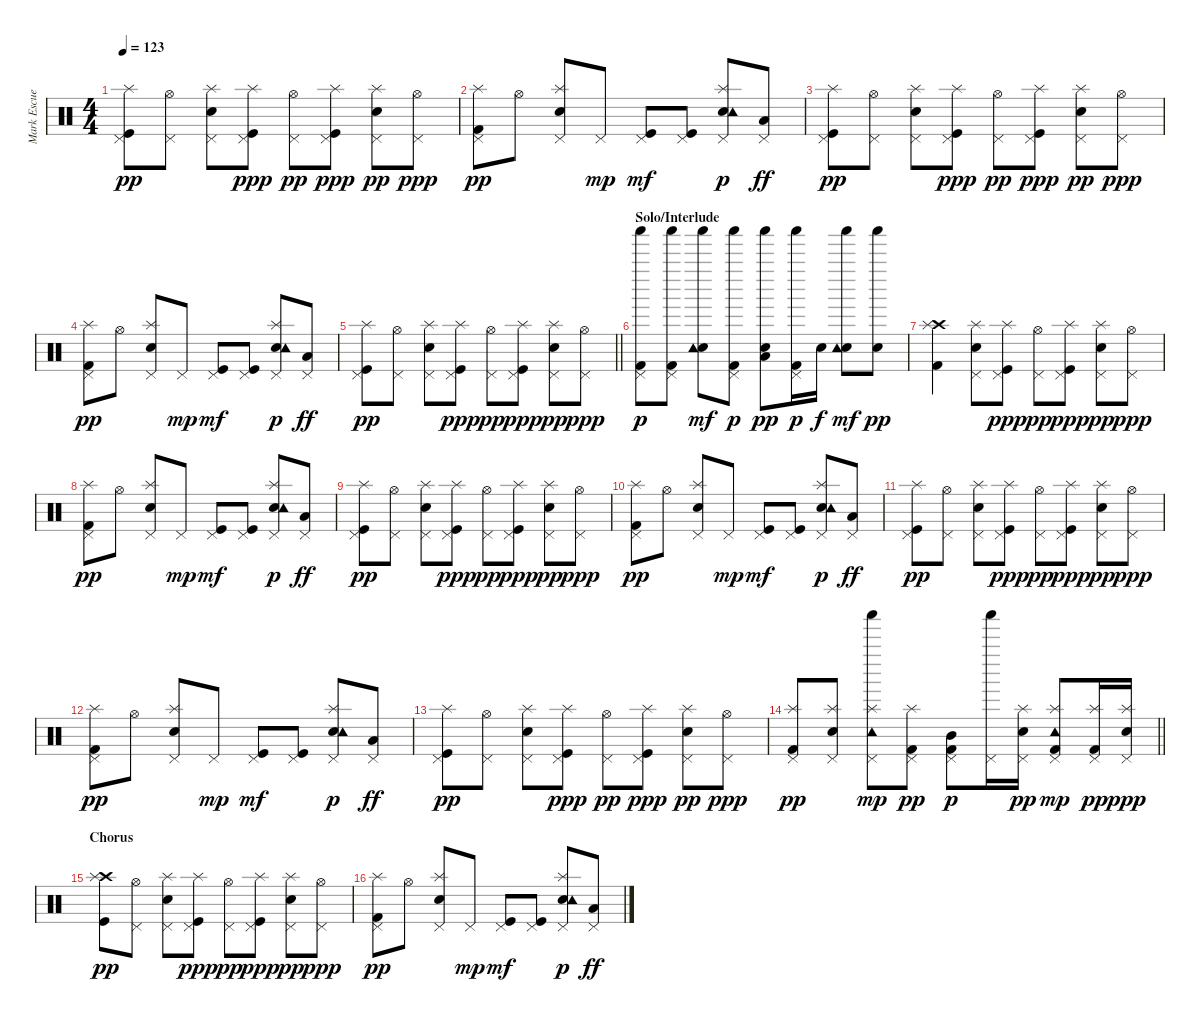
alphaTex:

\track ("Mark Escueta - Drums" "Mark Escue") {instrument percussion}
\staff {score}
\articulation defaults
\ts (4 4)
\tempo 123
\clef neutral
\ks c
("Pedal Hi-Hat (hit)" "Kick (hit)" "Splash (hit)").8{dy pp} ("Pedal Hi-Hat (hit)" "Hi-Hat (open)").8 ("Pedal Hi-Hat (hit)" "Electric Snare (hit)" "Splash (hit)").8 ("Pedal Hi-Hat (hit)" "Kick (hit)" "Splash (hit)").8{dy ppp} ("Pedal Hi-Hat (hit)" "Hi-Hat (open)").8{dy pp} ("Pedal Hi-Hat (hit)" "Kick (hit)" "Splash (hit)").8{dy ppp} ("Pedal Hi-Hat (hit)" "Electric Snare (hit)" "Splash (hit)").8{dy pp} ("Pedal Hi-Hat (hit)" "Hi-Hat (open)").8{dy ppp} |
("Pedal Hi-Hat (hit)" "Kick (hit) 2" "Splash (hit)").8{dy pp} "Hi-Hat (open)".8 ("Pedal Hi-Hat (hit)" "Electric Snare (hit)" "Splash (hit)").8 "Pedal Hi-Hat (hit)".8{dy mp} ("Pedal Hi-Hat (hit)" "Kick (hit)").8{dy mf} ("Pedal Hi-Hat (hit)" "Kick (hit)").8 ("Pedal Hi-Hat (hit)" "Electric Snare (hit)" "Splash (hit)" "Tambourine (hit)").8{dy p} ("Pedal Hi-Hat (hit)" "Low Tom (hit)").8{dy ff} |
("Pedal Hi-Hat (hit)" "Kick (hit)" "Splash (hit)").8{dy pp} ("Pedal Hi-Hat (hit)" "Hi-Hat (open)").8 ("Pedal Hi-Hat (hit)" "Electric Snare (hit)" "Splash (hit)").8 ("Pedal Hi-Hat (hit)" "Kick (hit)" "Splash (hit)").8{dy ppp} ("Pedal Hi-Hat (hit)" "Hi-Hat (open)").8{dy pp} ("Pedal Hi-Hat (hit)" "Kick (hit)" "Splash (hit)").8{dy ppp} ("Pedal Hi-Hat (hit)" "Electric Snare (hit)" "Splash (hit)").8{dy pp} ("Pedal Hi-Hat (hit)" "Hi-Hat (open)").8{dy ppp} |
("Pedal Hi-Hat (hit)" "Kick (hit) 2" "Splash (hit)").8{dy pp} "Hi-Hat (open)".8 ("Pedal Hi-Hat (hit)" "Electric Snare (hit)" "Splash (hit)").8 "Pedal Hi-Hat (hit)".8{dy mp} ("Pedal Hi-Hat (hit)" "Kick (hit)").8{dy mf} ("Pedal Hi-Hat (hit)" "Kick (hit)").8 ("Pedal Hi-Hat (hit)" "Electric Snare (hit)" "Splash (hit)" "Tambourine (hit)").8{dy p} ("Pedal Hi-Hat (hit)" "Low Tom (hit)").8{dy ff} |
\barLineRight lightlight
("Pedal Hi-Hat (hit)" "Kick (hit)" "Splash (hit)").8{dy pp} ("Pedal Hi-Hat (hit)" "Hi-Hat (open)").8 ("Pedal Hi-Hat (hit)" "Electric Snare (hit)" "Splash (hit)").8 ("Pedal Hi-Hat (hit)" "Kick (hit)" "Splash (hit)").8{dy ppp} ("Pedal Hi-Hat (hit)" "Hi-Hat (open)").8{dy pp} ("Pedal Hi-Hat (hit)" "Kick (hit)" "Splash (hit)").8{dy ppp} ("Pedal Hi-Hat (hit)" "Electric Snare (hit)" "Splash (hit)").8{dy pp} ("Pedal Hi-Hat (hit)" "Hi-Hat (open)").8{dy ppp} |
\section ("" "Solo/Interlude")
("Shaker (hit)" "Pedal Hi-Hat (hit)" "Kick (hit) 2").8{dy p} ("Shaker (hit)" "Pedal Hi-Hat (hit)" "Kick (hit) 2").8 ("Shaker (hit)" "Electric Snare (hit)" "Tambourine (hit)").8{dy mf} ("Shaker (hit)" "Pedal Hi-Hat (hit)" "Kick (hit) 2").8{dy p} ("Shaker (hit)" "Electric Snare (hit)" "Low Floor Tom (hit)").8{dy pp} ("Shaker (hit)" "Pedal Hi-Hat (hit)" "Kick (hit) 2").16{dy p} "Electric Snare (hit)".16{dy f} ("Shaker (hit)" "Electric Snare (hit)" "Tambourine (hit)").8{dy mf} ("Shaker (hit)" "Electric Snare (hit)").8{dy pp} |
("Crash high (hit)" "Kick (hit) 2" "Splash (hit)").4 ("Pedal Hi-Hat (hit)" "Electric Snare (hit)" "Splash (hit)").8 ("Pedal Hi-Hat (hit)" "Kick (hit)" "Splash (hit)").8{dy ppp} ("Pedal Hi-Hat (hit)" "Hi-Hat (open)").8{dy pp} ("Pedal Hi-Hat (hit)" "Kick (hit)" "Splash (hit)").8{dy ppp} ("Pedal Hi-Hat (hit)" "Electric Snare (hit)" "Splash (hit)").8{dy pp} ("Pedal Hi-Hat (hit)" "Hi-Hat (open)").8{dy ppp} |
("Pedal Hi-Hat (hit)" "Kick (hit) 2" "Splash (hit)").8{dy pp} "Hi-Hat (open)".8 ("Pedal Hi-Hat (hit)" "Electric Snare (hit)" "Splash (hit)").8 "Pedal Hi-Hat (hit)".8{dy mp} ("Pedal Hi-Hat (hit)" "Kick (hit)").8{dy mf} ("Pedal Hi-Hat (hit)" "Kick (hit)").8 ("Pedal Hi-Hat (hit)" "Electric Snare (hit)" "Splash (hit)" "Tambourine (hit)").8{dy p} ("Pedal Hi-Hat (hit)" "Low Tom (hit)").8{dy ff} |
("Pedal Hi-Hat (hit)" "Kick (hit)" "Splash (hit)").8{dy pp} ("Pedal Hi-Hat (hit)" "Hi-Hat (open)").8 ("Pedal Hi-Hat (hit)" "Electric Snare (hit)" "Splash (hit)").8 ("Pedal Hi-Hat (hit)" "Kick (hit)" "Splash (hit)").8{dy ppp} ("Pedal Hi-Hat (hit)" "Hi-Hat (open)").8{dy pp} ("Pedal Hi-Hat (hit)" "Kick (hit)" "Splash (hit)").8{dy ppp} ("Pedal Hi-Hat (hit)" "Electric Snare (hit)" "Splash (hit)").8{dy pp} ("Pedal Hi-Hat (hit)" "Hi-Hat (open)").8{dy ppp} |
("Pedal Hi-Hat (hit)" "Kick (hit) 2" "Splash (hit)").8{dy pp} "Hi-Hat (open)".8 ("Pedal Hi-Hat (hit)" "Electric Snare (hit)" "Splash (hit)").8 "Pedal Hi-Hat (hit)".8{dy mp} ("Pedal Hi-Hat (hit)" "Kick (hit)").8{dy mf} ("Pedal Hi-Hat (hit)" "Kick (hit)").8 ("Pedal Hi-Hat (hit)" "Electric Snare (hit)" "Splash (hit)" "Tambourine (hit)").8{dy p} ("Pedal Hi-Hat (hit)" "Low Tom (hit)").8{dy ff} |
("Pedal Hi-Hat (hit)" "Kick (hit)" "Splash (hit)").8{dy pp} ("Pedal Hi-Hat (hit)" "Hi-Hat (open)").8 ("Pedal Hi-Hat (hit)" "Electric Snare (hit)" "Splash (hit)").8 ("Pedal Hi-Hat (hit)" "Kick (hit)" "Splash (hit)").8{dy ppp} ("Pedal Hi-Hat (hit)" "Hi-Hat (open)").8{dy pp} ("Pedal Hi-Hat (hit)" "Kick (hit)" "Splash (hit)").8{dy ppp} ("Pedal Hi-Hat (hit)" "Electric Snare (hit)" "Splash (hit)").8{dy pp} ("Pedal Hi-Hat (hit)" "Hi-Hat (open)").8{dy ppp} |
("Pedal Hi-Hat (hit)" "Kick (hit) 2" "Splash (hit)").8{dy pp} "Hi-Hat (open)".8 ("Pedal Hi-Hat (hit)" "Electric Snare (hit)" "Splash (hit)").8 "Pedal Hi-Hat (hit)".8{dy mp} ("Pedal Hi-Hat (hit)" "Kick (hit)").8{dy mf} ("Pedal Hi-Hat (hit)" "Kick (hit)").8 ("Pedal Hi-Hat (hit)" "Electric Snare (hit)" "Splash (hit)" "Tambourine (hit)").8{dy p} ("Pedal Hi-Hat (hit)" "Low Tom (hit)").8{dy ff} |
("Pedal Hi-Hat (hit)" "Kick (hit)" "Splash (hit)").8{dy pp} ("Pedal Hi-Hat (hit)" "Hi-Hat (open)").8 ("Pedal Hi-Hat (hit)" "Electric Snare (hit)" "Splash (hit)").8 ("Pedal Hi-Hat (hit)" "Kick (hit)" "Splash (hit)").8{dy ppp} ("Pedal Hi-Hat (hit)" "Hi-Hat (open)").8{dy pp} ("Pedal Hi-Hat (hit)" "Kick (hit)" "Splash (hit)").8{dy ppp} ("Pedal Hi-Hat (hit)" "Electric Snare (hit)" "Splash (hit)").8{dy pp} ("Pedal Hi-Hat (hit)" "Hi-Hat (open)").8{dy ppp} |
\barLineRight lightlight
("Pedal Hi-Hat (hit)" "Kick (hit) 2" "Splash (hit)").8{dy pp} ("Pedal Hi-Hat (hit)" "Electric Snare (hit)" "Splash (hit)").8 ("Pedal Hi-Hat (hit)" "Shaker (hit)" "Splash (hit)" "Tambourine (hit)").8{dy mp} ("Pedal Hi-Hat (hit)" "Kick (hit) 2" "Splash (hit)").8{dy pp} ("Pedal Hi-Hat (hit)" "Kick (hit) 2" "Mid Tom (hit)").8{dy p} ("Pedal Hi-Hat (hit)" "Shaker (hit)").16 ("Pedal Hi-Hat (hit)" "Electric Snare (hit)" "Splash (hit)").16{dy pp} ("Pedal Hi-Hat (hit)" "Kick (hit) 2" "Splash (hit)" "Tambourine (hit)").8{dy mp} ("Pedal Hi-Hat (hit)" "Kick (hit) 2" "Splash (hit)").16{dy pp} ("Pedal Hi-Hat (hit)" "Electric Snare (hit)" "Splash (hit)").16{dy ppp} |
\section ("" "Chorus")
("Crash high (hit)" "Kick (hit)" "Splash (hit)").8{dy pp} ("Pedal Hi-Hat (hit)" "Hi-Hat (open)").8 ("Pedal Hi-Hat (hit)" "Electric Snare (hit)" "Splash (hit)").8 ("Pedal Hi-Hat (hit)" "Kick (hit)" "Splash (hit)").8{dy ppp} ("Pedal Hi-Hat (hit)" "Hi-Hat (open)").8{dy pp} ("Pedal Hi-Hat (hit)" "Kick (hit)" "Splash (hit)").8{dy ppp} ("Pedal Hi-Hat (hit)" "Electric Snare (hit)" "Splash (hit)").8{dy pp} ("Pedal Hi-Hat (hit)" "Hi-Hat (open)").8{dy ppp} |
("Pedal Hi-Hat (hit)" "Kick (hit) 2" "Splash (hit)").8{dy pp} "Hi-Hat (open)".8 ("Pedal Hi-Hat (hit)" "Electric Snare (hit)" "Splash (hit)").8 "Pedal Hi-Hat (hit)".8{dy mp} ("Pedal Hi-Hat (hit)" "Kick (hit)").8{dy mf} ("Pedal Hi-Hat (hit)" "Kick (hit)").8 ("Pedal Hi-Hat (hit)" "Electric Snare (hit)" "Splash (hit)" "Tambourine (hit)").8{dy p} ("Pedal Hi-Hat (hit)" "Low Tom (hit)").8{dy ff}
